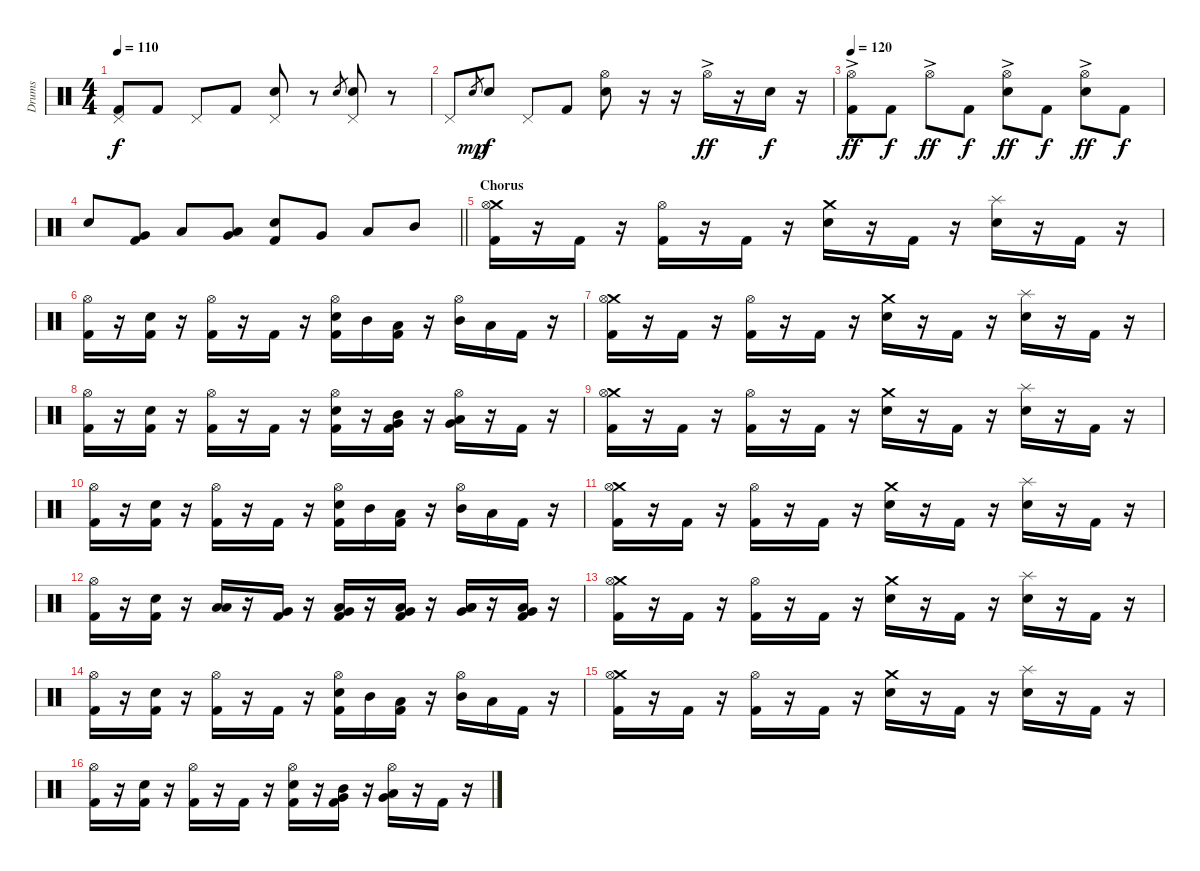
\track ("Drums" "Drums") {instrument percussion}
\staff {score}
\articulation defaults
\ts (4 4)
\tempo 110
\clef neutral
\ks c
("Kick (hit) 2" "Pedal Hi-Hat (hit)").8{dy f} "Kick (hit) 2".8 "Pedal Hi-Hat (hit)".8 "Kick (hit) 2".8 ("Snare (hit) 2" "Pedal Hi-Hat (hit)").8 r.8 "Snare (hit) 2".8{gr} ("Snare (hit) 2" "Pedal Hi-Hat (hit)").8 r.8 |
"Pedal Hi-Hat (hit)".8 "Electric Snare (hit)".8{gr dy mp} "Snare (hit) 2".8{dy f} "Pedal Hi-Hat (hit)".8 "Kick (hit) 2".8 ("Snare (hit) 2" "Hi-Hat (open)").8 r.16 r.16 "Hi-Hat (open)"{ac}.16{dy ff} r.16 "Snare (hit) 2".16{dy f} r.16 |
\tempo 120
("Kick (hit) 2" "Hi-Hat (open)"{ac}).8{dy ff} "Kick (hit) 2".8{dy f} "Hi-Hat (open)"{ac}.8{dy ff} "Kick (hit) 2".8{dy f} ("Snare (hit) 2" "Hi-Hat (open)"{ac}).8{dy ff} "Kick (hit) 2".8{dy f} ("Snare (hit) 2" "Hi-Hat (open)"{ac}).8{dy ff} "Kick (hit) 2".8{dy f} |
\barLineRight lightlight "Snare (hit) 2".8
("Very Low Tom (hit)" "Kick (hit) 2").8 "Low Tom (hit)".8 ("Very Low Tom (hit)" "Low Tom (hit)").8 ("Snare (hit) 2" "Kick (hit) 2").8 "Very Low Tom (hit)".8 "Low Floor Tom (hit)".8 "Mid Tom (hit)".8 |
\section ("" "Chorus")
("Crash medium (hit)" "Hi-Hat (open)" "Kick (hit) 2").16 r.16 "Kick (hit) 2".16 r.16 ("Hi-Hat (open)" "Kick (hit) 2").16 r.16 "Kick (hit) 2".16 r.16 ("Snare (hit) 2" "Crash medium (hit)").16 r.16 "Kick (hit) 2".16 r.16 ("Snare (hit) 2" "Splash (hit)").16 r.16 "Kick (hit) 2".16 r.16 |
("Hi-Hat (open)" "Kick (hit) 2").16 r.16 ("Snare (hit) 2" "Kick (hit) 2").16 r.16 ("Hi-Hat (open)" "Kick (hit) 2").16 r.16 "Kick (hit) 2".16 r.16 ("Hi-Hat (open)" "Snare (hit) 2" "Kick (hit) 2").16 "Mid Tom (hit)".16 ("Low Tom (hit)" "Kick (hit) 2").16 r.16 ("Hi-Hat (open)" "Mid Tom (hit)").16 "Low Tom (hit)".16 "Kick (hit) 2".16 r.16 |
("Crash medium (hit)" "Hi-Hat (open)" "Kick (hit) 2").16 r.16 "Kick (hit) 2".16 r.16 ("Hi-Hat (open)" "Kick (hit) 2").16 r.16 "Kick (hit) 2".16 r.16 ("Snare (hit) 2" "Crash medium (hit)").16 r.16 "Kick (hit) 2".16 r.16 ("Snare (hit) 2" "Splash (hit)").16 r.16 "Kick (hit) 2".16 r.16 |
("Hi-Hat (open)" "Kick (hit) 2").16 r.16 ("Snare (hit) 2" "Kick (hit) 2").16 r.16 ("Hi-Hat (open)" "Kick (hit) 2").16 r.16 "Kick (hit) 2".16 r.16 ("Hi-Hat (open)" "Snare (hit) 2" "Kick (hit) 2").16 r.16 ("Mid Tom (hit)" "Very Low Tom (hit)" "Kick (hit) 2").16 r.16 ("Hi-Hat (open)" "Very Low Tom (hit)" "Low Tom (hit)").16 r.16 "Kick (hit) 2".16 r.16 |
("Crash medium (hit)" "Hi-Hat (open)" "Kick (hit) 2").16 r.16 "Kick (hit) 2".16 r.16 ("Hi-Hat (open)" "Kick (hit) 2").16 r.16 "Kick (hit) 2".16 r.16 ("Snare (hit) 2" "Crash medium (hit)").16 r.16 "Kick (hit) 2".16 r.16 ("Snare (hit) 2" "Splash (hit)").16 r.16 "Kick (hit) 2".16 r.16 |
("Hi-Hat (open)" "Kick (hit) 2").16 r.16 ("Snare (hit) 2" "Kick (hit) 2").16 r.16 ("Hi-Hat (open)" "Kick (hit) 2").16 r.16 "Kick (hit) 2".16 r.16 ("Hi-Hat (open)" "Snare (hit) 2" "Kick (hit) 2").16 "Mid Tom (hit)".16 ("Low Tom (hit)" "Kick (hit) 2").16 r.16 ("Hi-Hat (open)" "Mid Tom (hit)").16 "Low Tom (hit)".16 "Kick (hit) 2".16 r.16 |
("Crash medium (hit)" "Hi-Hat (open)" "Kick (hit) 2").16 r.16 "Kick (hit) 2".16 r.16 ("Hi-Hat (open)" "Kick (hit) 2").16 r.16 "Kick (hit) 2".16 r.16 ("Snare (hit) 2" "Crash medium (hit)").16 r.16 "Kick (hit) 2".16 r.16 ("Snare (hit) 2" "Splash (hit)").16 r.16 "Kick (hit) 2".16 r.16 |
("Hi-Hat (open)" "Kick (hit) 2").16 r.16 ("Snare (hit) 2" "Kick (hit) 2").16 r.16 ("Low Floor Tom (hit)" "Low Tom (hit)").16 r.16 ("Very Low Tom (hit)" "Kick (hit) 2").16 r.16 ("Low Floor Tom (hit)" "Very Low Tom (hit)" "Kick (hit) 2").16 r.16 ("Low Floor Tom (hit)" "Very Low Tom (hit)" "Kick (hit) 2").16 r.16 ("Low Floor Tom (hit)" "Very Low Tom (hit)" "Low Tom (hit)").16 r.16 ("Low Floor Tom (hit)" "Very Low Tom (hit)" "Kick (hit) 2").16 r.16 |
("Crash medium (hit)" "Hi-Hat (open)" "Kick (hit) 2").16 r.16 "Kick (hit) 2".16 r.16 ("Hi-Hat (open)" "Kick (hit) 2").16 r.16 "Kick (hit) 2".16 r.16 ("Snare (hit) 2" "Crash medium (hit)").16 r.16 "Kick (hit) 2".16 r.16 ("Snare (hit) 2" "Splash (hit)").16 r.16 "Kick (hit) 2".16 r.16 |
("Hi-Hat (open)" "Kick (hit) 2").16 r.16 ("Snare (hit) 2" "Kick (hit) 2").16 r.16 ("Hi-Hat (open)" "Kick (hit) 2").16 r.16 "Kick (hit) 2".16 r.16 ("Hi-Hat (open)" "Snare (hit) 2" "Kick (hit) 2").16 "Mid Tom (hit)".16 ("Low Tom (hit)" "Kick (hit) 2").16 r.16 ("Hi-Hat (open)" "Mid Tom (hit)").16 "Low Tom (hit)".16 "Kick (hit) 2".16 r.16 |
("Crash medium (hit)" "Hi-Hat (open)" "Kick (hit) 2").16 r.16 "Kick (hit) 2".16 r.16 ("Hi-Hat (open)" "Kick (hit) 2").16 r.16 "Kick (hit) 2".16 r.16 ("Snare (hit) 2" "Crash medium (hit)").16 r.16 "Kick (hit) 2".16 r.16 ("Snare (hit) 2" "Splash (hit)").16 r.16 "Kick (hit) 2".16 r.16 |
("Hi-Hat (open)" "Kick (hit) 2").16 r.16 ("Snare (hit) 2" "Kick (hit) 2").16 r.16 ("Hi-Hat (open)" "Kick (hit) 2").16 r.16 "Kick (hit) 2".16 r.16 ("Hi-Hat (open)" "Snare (hit) 2" "Kick (hit) 2").16 r.16 ("Mid Tom (hit)" "Very Low Tom (hit)" "Kick (hit) 2").16 r.16 ("Hi-Hat (open)" "Very Low Tom (hit)" "Low Tom (hit)").16 r.16 "Kick (hit) 2".16 r.16
